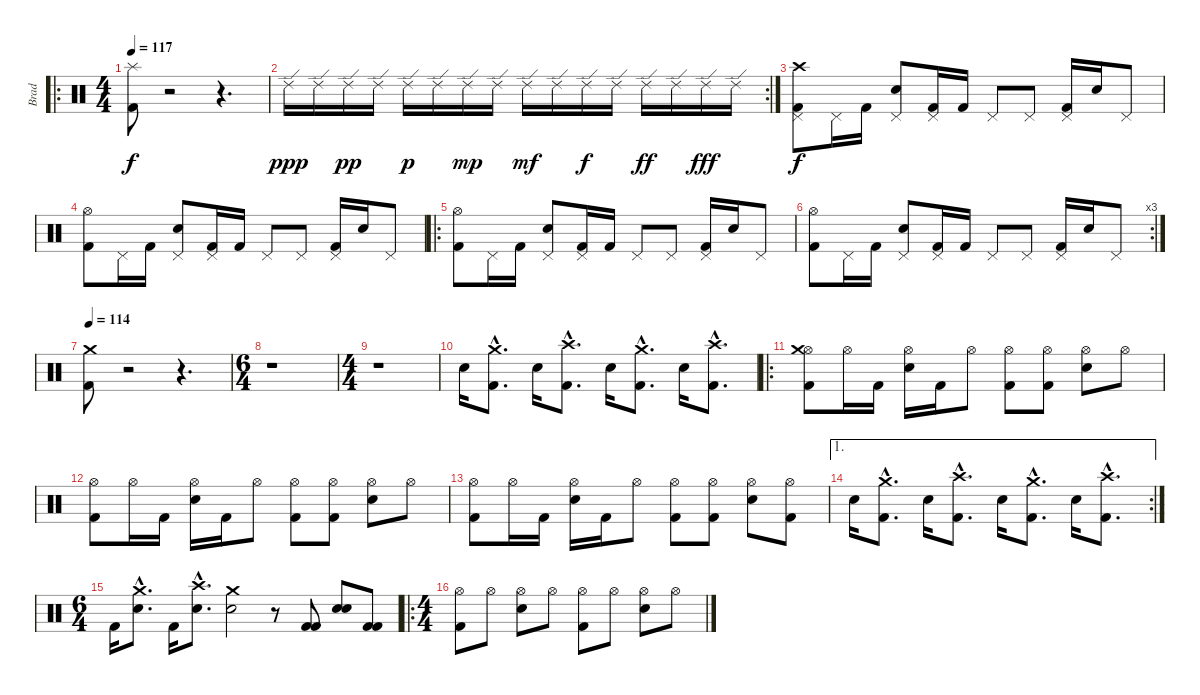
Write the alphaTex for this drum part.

\track ("Brad" "Brad") {instrument percussion}
\staff {score}
\articulation defaults
\ro
\ts (4 4)
\tempo 117
\tempo 80
\tempo 117
\clef neutral
\ks c
("Splash (hit)" "Kick (hit) 2").8{dy f} r.2 r.4{d} |
\rc 2 "Ride (edge) 2".16{dy ppp} "Ride (edge) 2".16 "Ride (edge) 2".16{dy pp} "Ride (edge) 2".16 "Ride (edge) 2".16{dy p} "Ride (edge) 2".16 "Ride (edge) 2".16{dy mp} "Ride (edge) 2".16 "Ride (edge) 2".16{dy mf} "Ride (edge) 2".16 "Ride (edge) 2".16{dy f} "Ride (edge) 2".16 "Ride (edge) 2".16{dy ff} "Ride (edge) 2".16 "Ride (edge) 2".16{dy fff} "Ride (edge) 2".16
|
("Pedal Hi-Hat (hit)" "Crash high (hit)" "Kick (hit) 2").8{dy f} "Pedal Hi-Hat (hit)".16 "Kick (hit) 2".16 ("Pedal Hi-Hat (hit)" "Snare (hit) 2").8 ("Pedal Hi-Hat (hit)" "Kick (hit) 2").16 "Kick (hit) 2".16 "Pedal Hi-Hat (hit)".8 "Pedal Hi-Hat (hit)".8 ("Pedal Hi-Hat (hit)" "Kick (hit) 2").16 "Snare (hit) 2".16 "Pedal Hi-Hat (hit)".8 |
("Hi-Hat (open)" "Kick (hit) 2").8 "Pedal Hi-Hat (hit)".16 "Kick (hit) 2".16 ("Pedal Hi-Hat (hit)" "Snare (hit) 2").8 ("Pedal Hi-Hat (hit)" "Kick (hit) 2").16 "Kick (hit) 2".16 "Pedal Hi-Hat (hit)".8 "Pedal Hi-Hat (hit)".8 ("Pedal Hi-Hat (hit)" "Kick (hit) 2").16 "Snare (hit) 2".16 "Pedal Hi-Hat (hit)".8 |
\ro
("Hi-Hat (open)" "Kick (hit) 2").8 "Pedal Hi-Hat (hit)".16 "Kick (hit) 2".16 ("Pedal Hi-Hat (hit)" "Snare (hit) 2").8 ("Pedal Hi-Hat (hit)" "Kick (hit) 2").16 "Kick (hit) 2".16 "Pedal Hi-Hat (hit)".8 "Pedal Hi-Hat (hit)".8 ("Pedal Hi-Hat (hit)" "Kick (hit) 2").16 "Snare (hit) 2".16 "Pedal Hi-Hat (hit)".8 |
\rc 3
("Hi-Hat (open)" "Kick (hit) 2").8 "Pedal Hi-Hat (hit)".16 "Kick (hit) 2".16 ("Pedal Hi-Hat (hit)" "Snare (hit) 2").8 ("Pedal Hi-Hat (hit)" "Kick (hit) 2").16 "Kick (hit) 2".16 "Pedal Hi-Hat (hit)".8 "Pedal Hi-Hat (hit)".8 ("Pedal Hi-Hat (hit)" "Kick (hit) 2").16 "Snare (hit) 2".16 "Pedal Hi-Hat (hit)".8 |
\tempo 114
("Crash medium (hit)" "Kick (hit) 2").8 r.2 r.4{d} |
\ts (6 4)
r.1 |
\ts (4 4)
r.1 |
"Snare (hit) 2".16 ("Kick (hit) 2"{hac} "Crash medium (hit)"{hac}).8{d} "Snare (hit) 2".16 ("Kick (hit) 2"{hac} "Crash high (hit)"{hac}).8{d} "Snare (hit) 2".16 ("Kick (hit) 2"{hac} "Crash medium (hit)"{hac}).8{d} "Snare (hit) 2".16 ("Kick (hit) 2"{hac} "Crash high (hit)"{hac}).8{d} |
\ro
("Hi-Hat (open)" "Kick (hit) 2" "Crash medium (hit)").8 "Hi-Hat (open)".16 "Kick (hit) 2".16 ("Hi-Hat (open)" "Snare (hit) 2").16 "Kick (hit) 2".16 "Hi-Hat (open)".8 ("Hi-Hat (open)" "Kick (hit) 2").8 ("Hi-Hat (open)" "Kick (hit) 2").8 ("Hi-Hat (open)" "Snare (hit) 2").8 "Hi-Hat (open)".8 |
("Hi-Hat (open)" "Kick (hit) 2").8 "Hi-Hat (open)".16 "Kick (hit) 2".16 ("Hi-Hat (open)" "Snare (hit) 2").16 "Kick (hit) 2".16 "Hi-Hat (open)".8 ("Hi-Hat (open)" "Kick (hit) 2").8 ("Hi-Hat (open)" "Kick (hit) 2").8 ("Hi-Hat (open)" "Snare (hit) 2").8 "Hi-Hat (open)".8 |
("Hi-Hat (open)" "Kick (hit) 2").8 "Hi-Hat (open)".16 "Kick (hit) 2".16 ("Hi-Hat (open)" "Snare (hit) 2").16 "Kick (hit) 2".16 "Hi-Hat (open)".8 ("Hi-Hat (open)" "Kick (hit) 2").8 ("Hi-Hat (open)" "Kick (hit) 2").8 ("Hi-Hat (open)" "Snare (hit) 2").8 ("Hi-Hat (open)" "Kick (hit) 2").8 |
\ae 1
\rc 2 "Snare (hit) 2".16
("Kick (hit) 2"{hac} "Crash medium (hit)"{hac}).8{d} "Snare (hit) 2".16 ("Kick (hit) 2"{hac} "Crash high (hit)"{hac}).8{d} "Snare (hit) 2".16 ("Kick (hit) 2"{hac} "Crash medium (hit)"{hac}).8{d} "Snare (hit) 2".16 ("Kick (hit) 2"{hac} "Crash high (hit)"{hac}).8{d} |
\ts (6 4)
"Kick (hit) 2".16 ("Snare (hit) 2"{hac} "Crash medium (hit)"{hac}).8{d} "Kick (hit) 2".16 ("Snare (hit) 2"{hac} "Crash high (hit)"{hac}).8{d} ("Snare (hit) 2" "Crash medium (hit)").2 r.8 ("Kick (hit) 2" "Kick (hit) 2").8 ("Snare (hit) 2" "Snare (hit) 2").8 ("Kick (hit) 2" "Kick (hit) 2").8 |
\ro
\ts (4 4)
("Hi-Hat (open)" "Kick (hit) 2").8 "Hi-Hat (open)".8 ("Hi-Hat (open)" "Snare (hit) 2").8 "Hi-Hat (open)".8 ("Hi-Hat (open)" "Kick (hit) 2").8 "Hi-Hat (open)".8 ("Hi-Hat (open)" "Snare (hit) 2").8 "Hi-Hat (open)".8
